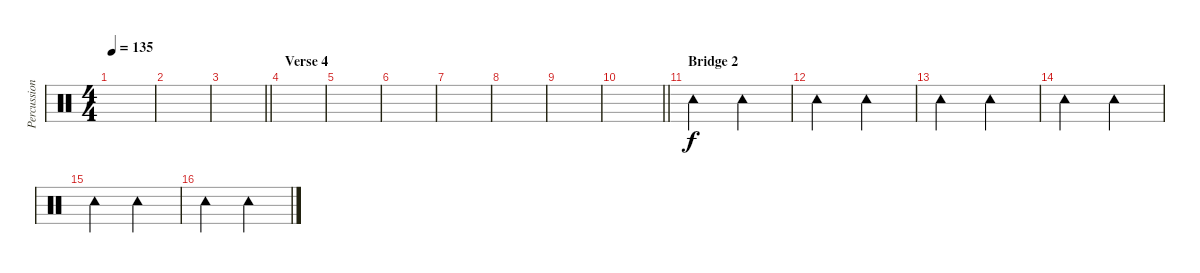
\track ("Percussion 2" "Percussion") {instrument percussion}
\staff {score}
\articulation defaults
\ts (4 4)
\tempo 135
\clef neutral
\ks c
|
|
\barLineRight lightlight
|
\section ("" "Verse 4")
|
|
|
|
|
|
\barLineRight lightlight
|
\section ("" "Bridge 2")
"Tambourine (hit)".2{dy f} "Tambourine (hit)".2 |
"Tambourine (hit)".2 "Tambourine (hit)".2 |
"Tambourine (hit)".2 "Tambourine (hit)".2 |
"Tambourine (hit)".2 "Tambourine (hit)".2 |
"Tambourine (hit)".2 "Tambourine (hit)".2 |
"Tambourine (hit)".2 "Tambourine (hit)".2
